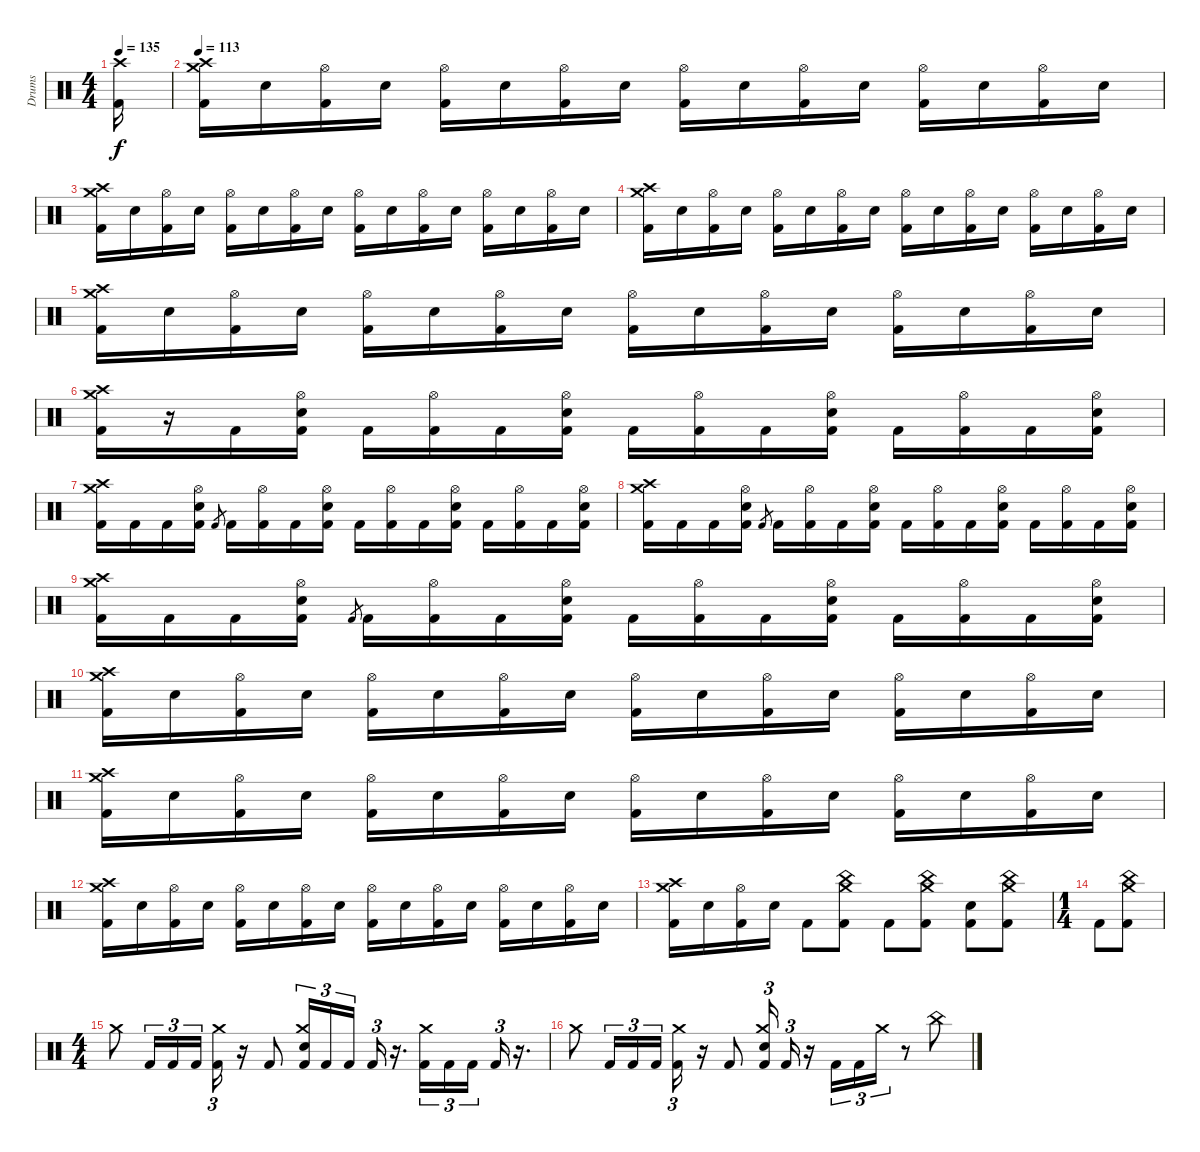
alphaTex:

\track ("Drums" "Drums") {instrument percussion}
\staff {score}
\articulation defaults
\ts (4 4)
\tempo 135
\clef neutral
\ks c
("Crash high (hit)" "Kick (hit) 2").16{dy f} |
\tempo 113
("Crash high (hit)" "Crash medium (hit)" "Kick (hit) 2").16 "Snare (hit) 2".16 ("Hi-Hat (open)" "Kick (hit) 2").16 "Snare (hit) 2".16 ("Hi-Hat (open)" "Kick (hit) 2").16 "Snare (hit) 2".16 ("Hi-Hat (open)" "Kick (hit) 2").16 "Snare (hit) 2".16 ("Hi-Hat (open)" "Kick (hit) 2").16 "Snare (hit) 2".16 ("Hi-Hat (open)" "Kick (hit) 2").16 "Snare (hit) 2".16 ("Hi-Hat (open)" "Kick (hit) 2").16 "Snare (hit) 2".16 ("Hi-Hat (open)" "Kick (hit) 2").16 "Snare (hit) 2".16 |
("Crash high (hit)" "Crash medium (hit)" "Kick (hit) 2").16 "Snare (hit) 2".16 ("Hi-Hat (open)" "Kick (hit) 2").16 "Snare (hit) 2".16 ("Hi-Hat (open)" "Kick (hit) 2").16 "Snare (hit) 2".16 ("Hi-Hat (open)" "Kick (hit) 2").16 "Snare (hit) 2".16 ("Hi-Hat (open)" "Kick (hit) 2").16 "Snare (hit) 2".16 ("Hi-Hat (open)" "Kick (hit) 2").16 "Snare (hit) 2".16 ("Hi-Hat (open)" "Kick (hit) 2").16 "Snare (hit) 2".16 ("Hi-Hat (open)" "Kick (hit) 2").16 "Snare (hit) 2".16 |
("Crash high (hit)" "Crash medium (hit)" "Kick (hit) 2").16 "Snare (hit) 2".16 ("Hi-Hat (open)" "Kick (hit) 2").16 "Snare (hit) 2".16 ("Hi-Hat (open)" "Kick (hit) 2").16 "Snare (hit) 2".16 ("Hi-Hat (open)" "Kick (hit) 2").16 "Snare (hit) 2".16 ("Hi-Hat (open)" "Kick (hit) 2").16 "Snare (hit) 2".16 ("Hi-Hat (open)" "Kick (hit) 2").16 "Snare (hit) 2".16 ("Hi-Hat (open)" "Kick (hit) 2").16 "Snare (hit) 2".16 ("Hi-Hat (open)" "Kick (hit) 2").16 "Snare (hit) 2".16 |
("Crash high (hit)" "Crash medium (hit)" "Kick (hit) 2").16 "Snare (hit) 2".16 ("Hi-Hat (open)" "Kick (hit) 2").16 "Snare (hit) 2".16 ("Hi-Hat (open)" "Kick (hit) 2").16 "Snare (hit) 2".16 ("Hi-Hat (open)" "Kick (hit) 2").16 "Snare (hit) 2".16 ("Hi-Hat (open)" "Kick (hit) 2").16 "Snare (hit) 2".16 ("Hi-Hat (open)" "Kick (hit) 2").16 "Snare (hit) 2".16 ("Hi-Hat (open)" "Kick (hit) 2").16 "Snare (hit) 2".16 ("Hi-Hat (open)" "Kick (hit) 2").16 "Snare (hit) 2".16 |
("Crash high (hit)" "Crash medium (hit)" "Kick (hit) 2").16 r.16 "Kick (hit) 2".16 ("Hi-Hat (open)" "Snare (hit) 2" "Kick (hit) 2").16 "Kick (hit) 2".16 ("Hi-Hat (open)" "Kick (hit) 2").16 "Kick (hit) 2".16 ("Hi-Hat (open)" "Snare (hit) 2" "Kick (hit) 2").16 "Kick (hit) 2".16 ("Hi-Hat (open)" "Kick (hit) 2").16 "Kick (hit) 2".16 ("Hi-Hat (open)" "Snare (hit) 2" "Kick (hit) 2").16 "Kick (hit) 2".16 ("Hi-Hat (open)" "Kick (hit) 2").16 "Kick (hit) 2".16 ("Hi-Hat (open)" "Snare (hit) 2" "Kick (hit) 2").16 |
("Crash high (hit)" "Crash medium (hit)" "Kick (hit) 2").16 "Kick (hit) 2".16 "Kick (hit) 2".16 ("Hi-Hat (open)" "Snare (hit) 2" "Kick (hit) 2").16 "Kick (hit) 2".8{gr} "Kick (hit) 2".16 ("Hi-Hat (open)" "Kick (hit) 2").16 "Kick (hit) 2".16 ("Hi-Hat (open)" "Snare (hit) 2" "Kick (hit) 2").16 "Kick (hit) 2".16 ("Hi-Hat (open)" "Kick (hit) 2").16 "Kick (hit) 2".16 ("Hi-Hat (open)" "Snare (hit) 2" "Kick (hit) 2").16 "Kick (hit) 2".16 ("Hi-Hat (open)" "Kick (hit) 2").16 "Kick (hit) 2".16 ("Hi-Hat (open)" "Snare (hit) 2" "Kick (hit) 2").16 |
("Crash high (hit)" "Crash medium (hit)" "Kick (hit) 2").16 "Kick (hit) 2".16 "Kick (hit) 2".16 ("Hi-Hat (open)" "Snare (hit) 2" "Kick (hit) 2").16 "Kick (hit) 2".8{gr} "Kick (hit) 2".16 ("Hi-Hat (open)" "Kick (hit) 2").16 "Kick (hit) 2".16 ("Hi-Hat (open)" "Snare (hit) 2" "Kick (hit) 2").16 "Kick (hit) 2".16 ("Hi-Hat (open)" "Kick (hit) 2").16 "Kick (hit) 2".16 ("Hi-Hat (open)" "Snare (hit) 2" "Kick (hit) 2").16 "Kick (hit) 2".16 ("Hi-Hat (open)" "Kick (hit) 2").16 "Kick (hit) 2".16 ("Hi-Hat (open)" "Snare (hit) 2" "Kick (hit) 2").16 |
("Crash high (hit)" "Crash medium (hit)" "Kick (hit) 2").16 "Kick (hit) 2".16 "Kick (hit) 2".16 ("Hi-Hat (open)" "Snare (hit) 2" "Kick (hit) 2").16 "Kick (hit) 2".8{gr} "Kick (hit) 2".16 ("Hi-Hat (open)" "Kick (hit) 2").16 "Kick (hit) 2".16 ("Hi-Hat (open)" "Snare (hit) 2" "Kick (hit) 2").16 "Kick (hit) 2".16 ("Hi-Hat (open)" "Kick (hit) 2").16 "Kick (hit) 2".16 ("Hi-Hat (open)" "Snare (hit) 2" "Kick (hit) 2").16 "Kick (hit) 2".16 ("Hi-Hat (open)" "Kick (hit) 2").16 "Kick (hit) 2".16 ("Hi-Hat (open)" "Snare (hit) 2" "Kick (hit) 2").16 |
("Crash high (hit)" "Crash medium (hit)" "Kick (hit) 2").16 "Snare (hit) 2".16 ("Hi-Hat (open)" "Kick (hit) 2").16 "Snare (hit) 2".16 ("Hi-Hat (open)" "Kick (hit) 2").16 "Snare (hit) 2".16 ("Hi-Hat (open)" "Kick (hit) 2").16 "Snare (hit) 2".16 ("Hi-Hat (open)" "Kick (hit) 2").16 "Snare (hit) 2".16 ("Hi-Hat (open)" "Kick (hit) 2").16 "Snare (hit) 2".16 ("Hi-Hat (open)" "Kick (hit) 2").16 "Snare (hit) 2".16 ("Hi-Hat (open)" "Kick (hit) 2").16 "Snare (hit) 2".16 |
("Crash high (hit)" "Crash medium (hit)" "Kick (hit) 2").16 "Snare (hit) 2".16 ("Hi-Hat (open)" "Kick (hit) 2").16 "Snare (hit) 2".16 ("Hi-Hat (open)" "Kick (hit) 2").16 "Snare (hit) 2".16 ("Hi-Hat (open)" "Kick (hit) 2").16 "Snare (hit) 2".16 ("Hi-Hat (open)" "Kick (hit) 2").16 "Snare (hit) 2".16 ("Hi-Hat (open)" "Kick (hit) 2").16 "Snare (hit) 2".16 ("Hi-Hat (open)" "Kick (hit) 2").16 "Snare (hit) 2".16 ("Hi-Hat (open)" "Kick (hit) 2").16 "Snare (hit) 2".16 |
("Crash high (hit)" "Crash medium (hit)" "Kick (hit) 2").16 "Snare (hit) 2".16 ("Hi-Hat (open)" "Kick (hit) 2").16 "Snare (hit) 2".16 ("Hi-Hat (open)" "Kick (hit) 2").16 "Snare (hit) 2".16 ("Hi-Hat (open)" "Kick (hit) 2").16 "Snare (hit) 2".16 ("Hi-Hat (open)" "Kick (hit) 2").16 "Snare (hit) 2".16 ("Hi-Hat (open)" "Kick (hit) 2").16 "Snare (hit) 2".16 ("Hi-Hat (open)" "Kick (hit) 2").16 "Snare (hit) 2".16 ("Hi-Hat (open)" "Kick (hit) 2").16 "Snare (hit) 2".16 |
("Crash high (hit)" "Crash medium (hit)" "Kick (hit) 2").16 "Snare (hit) 2".16 ("Hi-Hat (open)" "Kick (hit) 2").16 "Snare (hit) 2".16 "Kick (hit) 2".8 ("China (hit)" "Crash medium (hit)" "Kick (hit) 2").8 "Kick (hit) 2".8 ("China (hit)" "Crash medium (hit)" "Kick (hit) 2").8 ("Snare (hit) 2" "Kick (hit) 2").8 ("China (hit)" "Crash medium (hit)" "Kick (hit) 2").8 |
\ts (1 4)
"Kick (hit) 2".8 ("China (hit)" "Crash medium (hit)" "Kick (hit) 2").8 |
\ts (4 4)
"Crash medium (hit)".8 "Kick (hit) 2".16{tu (3 2)} "Kick (hit) 2".16{tu (3 2)} "Kick (hit) 2".16{tu (3 2)} ("Crash medium (hit)" "Kick (hit) 2").16{tu (3 2)} r.16 "Kick (hit) 2".8 ("Crash medium (hit)" "Snare (hit) 2" "Kick (hit) 2").16{tu (3 2)} "Kick (hit) 2".16{tu (3 2)} "Kick (hit) 2".16{tu (3 2) beam splitsecondary} "Kick (hit) 2".16{tu (3 2)} r.16{d} ("Crash medium (hit)" "Kick (hit) 2").16{tu (3 2)} "Kick (hit) 2".16{tu (3 2)} "Kick (hit) 2".16{tu (3 2) beam splitsecondary} "Kick (hit) 2".16{tu (3 2)} r.16{d} |
"Crash medium (hit)".8 "Kick (hit) 2".16{tu (3 2)} "Kick (hit) 2".16{tu (3 2)} "Kick (hit) 2".16{tu (3 2)} ("Crash medium (hit)" "Kick (hit) 2").16{tu (3 2)} r.16 "Kick (hit) 2".8 ("Crash medium (hit)" "Snare (hit) 2" "Kick (hit) 2").16{tu (3 2)} "Kick (hit) 2".16{tu (3 2)} r.16 "Kick (hit) 2".16{tu (3 2)} "Kick (hit) 2".16{tu (3 2)} "Crash medium (hit)".16{tu (3 2)} r.8 "China (hit)".8
